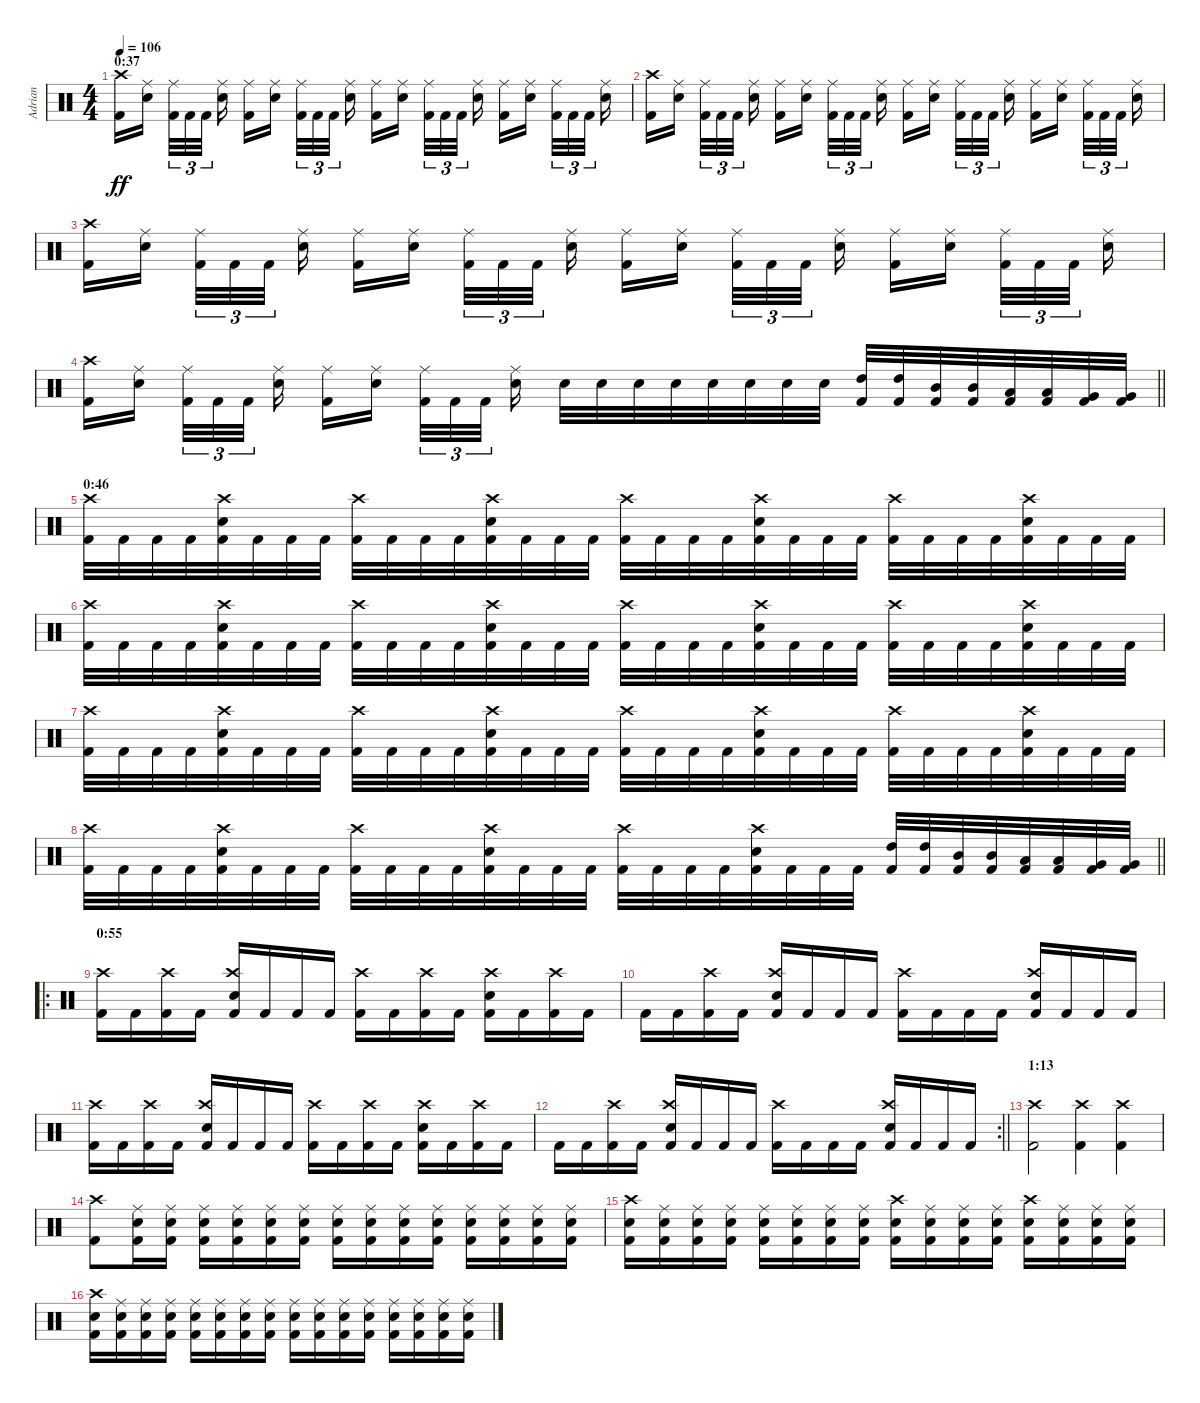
\track ("Adrian" "Adrian") {instrument percussion}
\staff {score}
\articulation defaults
\ts (4 4)
\section ("" "0:37")
\tempo 106
\clef neutral
\ks c
("Kick (hit) 2" "Crash high (hit)").16{dy ff} ("Snare (hit) 2" "Ride (middle)").16{beam splitsecondary} ("Kick (hit) 2" "Ride (middle)").32{tu (3 2)} "Kick (hit) 2".32{tu (3 2)} "Kick (hit) 2".32{tu (3 2) beam splitsecondary} ("Snare (hit) 2" "Ride (middle)").16 ("Kick (hit) 2" "Ride (middle)").16 ("Snare (hit) 2" "Ride (middle)").16{beam splitsecondary} ("Kick (hit) 2" "Ride (middle)").32{tu (3 2)} "Kick (hit) 2".32{tu (3 2)} "Kick (hit) 2".32{tu (3 2) beam splitsecondary} ("Snare (hit) 2" "Ride (middle)").16 ("Kick (hit) 2" "Ride (middle)").16 ("Snare (hit) 2" "Ride (middle)").16{beam splitsecondary} ("Kick (hit) 2" "Ride (middle)").32{tu (3 2)} "Kick (hit) 2".32{tu (3 2)} "Kick (hit) 2".32{tu (3 2) beam splitsecondary} ("Snare (hit) 2" "Ride (middle)").16 ("Kick (hit) 2" "Ride (middle)").16 ("Snare (hit) 2" "Ride (middle)").16{beam splitsecondary} ("Kick (hit) 2" "Ride (middle)").32{tu (3 2)} "Kick (hit) 2".32{tu (3 2)} "Kick (hit) 2".32{tu (3 2) beam splitsecondary} ("Snare (hit) 2" "Ride (middle)").16 |
("Kick (hit) 2" "Crash high (hit)").16 ("Snare (hit) 2" "Ride (middle)").16{beam splitsecondary} ("Kick (hit) 2" "Ride (middle)").32{tu (3 2)} "Kick (hit) 2".32{tu (3 2)} "Kick (hit) 2".32{tu (3 2) beam splitsecondary} ("Snare (hit) 2" "Ride (middle)").16 ("Kick (hit) 2" "Ride (middle)").16 ("Snare (hit) 2" "Ride (middle)").16{beam splitsecondary} ("Kick (hit) 2" "Ride (middle)").32{tu (3 2)} "Kick (hit) 2".32{tu (3 2)} "Kick (hit) 2".32{tu (3 2) beam splitsecondary} ("Snare (hit) 2" "Ride (middle)").16 ("Kick (hit) 2" "Ride (middle)").16 ("Snare (hit) 2" "Ride (middle)").16{beam splitsecondary} ("Kick (hit) 2" "Ride (middle)").32{tu (3 2)} "Kick (hit) 2".32{tu (3 2)} "Kick (hit) 2".32{tu (3 2) beam splitsecondary} ("Snare (hit) 2" "Ride (middle)").16 ("Kick (hit) 2" "Ride (middle)").16 ("Snare (hit) 2" "Ride (middle)").16{beam splitsecondary} ("Kick (hit) 2" "Ride (middle)").32{tu (3 2)} "Kick (hit) 2".32{tu (3 2)} "Kick (hit) 2".32{tu (3 2) beam splitsecondary} ("Snare (hit) 2" "Ride (middle)").16 |
("Kick (hit) 2" "Crash high (hit)").16 ("Snare (hit) 2" "Ride (middle)").16{beam splitsecondary} ("Kick (hit) 2" "Ride (middle)").32{tu (3 2)} "Kick (hit) 2".32{tu (3 2)} "Kick (hit) 2".32{tu (3 2) beam splitsecondary} ("Snare (hit) 2" "Ride (middle)").16 ("Kick (hit) 2" "Ride (middle)").16 ("Snare (hit) 2" "Ride (middle)").16{beam splitsecondary} ("Kick (hit) 2" "Ride (middle)").32{tu (3 2)} "Kick (hit) 2".32{tu (3 2)} "Kick (hit) 2".32{tu (3 2) beam splitsecondary} ("Snare (hit) 2" "Ride (middle)").16 ("Kick (hit) 2" "Ride (middle)").16 ("Snare (hit) 2" "Ride (middle)").16{beam splitsecondary} ("Kick (hit) 2" "Ride (middle)").32{tu (3 2)} "Kick (hit) 2".32{tu (3 2)} "Kick (hit) 2".32{tu (3 2) beam splitsecondary} ("Snare (hit) 2" "Ride (middle)").16 ("Kick (hit) 2" "Ride (middle)").16 ("Snare (hit) 2" "Ride (middle)").16{beam splitsecondary} ("Kick (hit) 2" "Ride (middle)").32{tu (3 2)} "Kick (hit) 2".32{tu (3 2)} "Kick (hit) 2".32{tu (3 2) beam splitsecondary} ("Snare (hit) 2" "Ride (middle)").16 |
\barLineRight lightlight
("Kick (hit) 2" "Crash high (hit)").16 ("Snare (hit) 2" "Ride (middle)").16{beam splitsecondary} ("Kick (hit) 2" "Ride (middle)").32{tu (3 2)} "Kick (hit) 2".32{tu (3 2)} "Kick (hit) 2".32{tu (3 2) beam splitsecondary} ("Snare (hit) 2" "Ride (middle)").16 ("Kick (hit) 2" "Ride (middle)").16 ("Snare (hit) 2" "Ride (middle)").16{beam splitsecondary} ("Kick (hit) 2" "Ride (middle)").32{tu (3 2)} "Kick (hit) 2".32{tu (3 2)} "Kick (hit) 2".32{tu (3 2) beam splitsecondary} ("Snare (hit) 2" "Ride (middle)").16 "Snare (hit) 2".32 "Snare (hit) 2".32 "Snare (hit) 2".32 "Snare (hit) 2".32 "Snare (hit) 2".32 "Snare (hit) 2".32 "Snare (hit) 2".32 "Snare (hit) 2".32 ("Kick (hit) 2" "High Tom (hit)").32 ("Kick (hit) 2" "High Tom (hit)").32 ("Kick (hit) 2" "Mid Tom (hit)").32 ("Kick (hit) 2" "Mid Tom (hit)").32 ("Kick (hit) 2" "Low Tom (hit)").32 ("Kick (hit) 2" "Low Tom (hit)").32 ("Kick (hit) 2" "Very Low Tom (hit)").32 ("Kick (hit) 2" "Very Low Tom (hit)").32 |
\section ("" "0:46")
("Kick (hit) 2" "Crash high (hit)").32 "Kick (hit) 2".32 "Kick (hit) 2".32 "Kick (hit) 2".32 ("Kick (hit) 2" "Snare (hit) 2" "Crash high (hit)").32 "Kick (hit) 2".32 "Kick (hit) 2".32 "Kick (hit) 2".32 ("Kick (hit) 2" "Crash high (hit)").32 "Kick (hit) 2".32 "Kick (hit) 2".32 "Kick (hit) 2".32 ("Kick (hit) 2" "Snare (hit) 2" "Crash high (hit)").32 "Kick (hit) 2".32 "Kick (hit) 2".32 "Kick (hit) 2".32 ("Kick (hit) 2" "Crash high (hit)").32 "Kick (hit) 2".32 "Kick (hit) 2".32 "Kick (hit) 2".32 ("Kick (hit) 2" "Snare (hit) 2" "Crash high (hit)").32 "Kick (hit) 2".32 "Kick (hit) 2".32 "Kick (hit) 2".32 ("Kick (hit) 2" "Crash high (hit)").32 "Kick (hit) 2".32 "Kick (hit) 2".32 "Kick (hit) 2".32 ("Kick (hit) 2" "Snare (hit) 2" "Crash high (hit)").32 "Kick (hit) 2".32 "Kick (hit) 2".32 "Kick (hit) 2".32 |
("Kick (hit) 2" "Crash high (hit)").32 "Kick (hit) 2".32 "Kick (hit) 2".32 "Kick (hit) 2".32 ("Kick (hit) 2" "Snare (hit) 2" "Crash high (hit)").32 "Kick (hit) 2".32 "Kick (hit) 2".32 "Kick (hit) 2".32 ("Kick (hit) 2" "Crash high (hit)").32 "Kick (hit) 2".32 "Kick (hit) 2".32 "Kick (hit) 2".32 ("Kick (hit) 2" "Snare (hit) 2" "Crash high (hit)").32 "Kick (hit) 2".32 "Kick (hit) 2".32 "Kick (hit) 2".32 ("Kick (hit) 2" "Crash high (hit)").32 "Kick (hit) 2".32 "Kick (hit) 2".32 "Kick (hit) 2".32 ("Kick (hit) 2" "Snare (hit) 2" "Crash high (hit)").32 "Kick (hit) 2".32 "Kick (hit) 2".32 "Kick (hit) 2".32 ("Kick (hit) 2" "Crash high (hit)").32 "Kick (hit) 2".32 "Kick (hit) 2".32 "Kick (hit) 2".32 ("Kick (hit) 2" "Snare (hit) 2" "Crash high (hit)").32 "Kick (hit) 2".32 "Kick (hit) 2".32 "Kick (hit) 2".32 |
("Kick (hit) 2" "Crash high (hit)").32 "Kick (hit) 2".32 "Kick (hit) 2".32 "Kick (hit) 2".32 ("Kick (hit) 2" "Snare (hit) 2" "Crash high (hit)").32 "Kick (hit) 2".32 "Kick (hit) 2".32 "Kick (hit) 2".32 ("Kick (hit) 2" "Crash high (hit)").32 "Kick (hit) 2".32 "Kick (hit) 2".32 "Kick (hit) 2".32 ("Kick (hit) 2" "Snare (hit) 2" "Crash high (hit)").32 "Kick (hit) 2".32 "Kick (hit) 2".32 "Kick (hit) 2".32 ("Kick (hit) 2" "Crash high (hit)").32 "Kick (hit) 2".32 "Kick (hit) 2".32 "Kick (hit) 2".32 ("Kick (hit) 2" "Snare (hit) 2" "Crash high (hit)").32 "Kick (hit) 2".32 "Kick (hit) 2".32 "Kick (hit) 2".32 ("Kick (hit) 2" "Crash high (hit)").32 "Kick (hit) 2".32 "Kick (hit) 2".32 "Kick (hit) 2".32 ("Kick (hit) 2" "Snare (hit) 2" "Crash high (hit)").32 "Kick (hit) 2".32 "Kick (hit) 2".32 "Kick (hit) 2".32 |
\barLineRight lightlight
("Kick (hit) 2" "Crash high (hit)").32 "Kick (hit) 2".32 "Kick (hit) 2".32 "Kick (hit) 2".32 ("Kick (hit) 2" "Snare (hit) 2" "Crash high (hit)").32 "Kick (hit) 2".32 "Kick (hit) 2".32 "Kick (hit) 2".32 ("Kick (hit) 2" "Crash high (hit)").32 "Kick (hit) 2".32 "Kick (hit) 2".32 "Kick (hit) 2".32 ("Kick (hit) 2" "Snare (hit) 2" "Crash high (hit)").32 "Kick (hit) 2".32 "Kick (hit) 2".32 "Kick (hit) 2".32 ("Kick (hit) 2" "Crash high (hit)").32 "Kick (hit) 2".32 "Kick (hit) 2".32 "Kick (hit) 2".32 ("Kick (hit) 2" "Snare (hit) 2" "Crash high (hit)").32 "Kick (hit) 2".32 "Kick (hit) 2".32 "Kick (hit) 2".32 ("Kick (hit) 2" "High Tom (hit)").32 ("Kick (hit) 2" "High Tom (hit)").32 ("Kick (hit) 2" "Mid Tom (hit)").32 ("Kick (hit) 2" "Mid Tom (hit)").32 ("Kick (hit) 2" "Low Tom (hit)").32 ("Kick (hit) 2" "Low Tom (hit)").32 ("Kick (hit) 2" "Very Low Tom (hit)").32 ("Kick (hit) 2" "Very Low Tom (hit)").32 |
\ro
\section ("" "0:55")
("Kick (hit) 2" "Crash high (hit)").16 "Kick (hit) 2".16 ("Kick (hit) 2" "Crash high (hit)").16 "Kick (hit) 2".16 ("Kick (hit) 2" "Snare (hit) 2" "Crash high (hit)").16 "Kick (hit) 2".16 "Kick (hit) 2".16 "Kick (hit) 2".16 ("Kick (hit) 2" "Crash high (hit)").16 "Kick (hit) 2".16 ("Kick (hit) 2" "Crash high (hit)").16 "Kick (hit) 2".16 ("Kick (hit) 2" "Snare (hit) 2" "Crash high (hit)").16 "Kick (hit) 2".16 ("Kick (hit) 2" "Crash high (hit)").16 "Kick (hit) 2".16 |
"Kick (hit) 2".16 "Kick (hit) 2".16 ("Kick (hit) 2" "Crash high (hit)").16 "Kick (hit) 2".16 ("Kick (hit) 2" "Snare (hit) 2" "Crash high (hit)").16 "Kick (hit) 2".16 "Kick (hit) 2".16 "Kick (hit) 2".16 ("Kick (hit) 2" "Crash high (hit)").16 "Kick (hit) 2".16 "Kick (hit) 2".16 "Kick (hit) 2".16 ("Kick (hit) 2" "Snare (hit) 2" "Crash high (hit)").16 "Kick (hit) 2".16 "Kick (hit) 2".16 "Kick (hit) 2".16 |
("Kick (hit) 2" "Crash high (hit)").16 "Kick (hit) 2".16 ("Kick (hit) 2" "Crash high (hit)").16 "Kick (hit) 2".16 ("Kick (hit) 2" "Snare (hit) 2" "Crash high (hit)").16 "Kick (hit) 2".16 "Kick (hit) 2".16 "Kick (hit) 2".16 ("Kick (hit) 2" "Crash high (hit)").16 "Kick (hit) 2".16 ("Kick (hit) 2" "Crash high (hit)").16 "Kick (hit) 2".16 ("Kick (hit) 2" "Snare (hit) 2" "Crash high (hit)").16 "Kick (hit) 2".16 ("Kick (hit) 2" "Crash high (hit)").16 "Kick (hit) 2".16 |
\rc 2
\barLineRight lightlight "Kick (hit) 2".16 "Kick (hit) 2".16
("Kick (hit) 2" "Crash high (hit)").16 "Kick (hit) 2".16 ("Kick (hit) 2" "Snare (hit) 2" "Crash high (hit)").16 "Kick (hit) 2".16 "Kick (hit) 2".16 "Kick (hit) 2".16 ("Kick (hit) 2" "Crash high (hit)").16 "Kick (hit) 2".16 "Kick (hit) 2".16 "Kick (hit) 2".16 ("Kick (hit) 2" "Snare (hit) 2" "Crash high (hit)").16 "Kick (hit) 2".16 "Kick (hit) 2".16 "Kick (hit) 2".16 |
\section ("" "1:13")
("Kick (hit) 2" "Crash high (hit)").2 ("Kick (hit) 2" "Crash high (hit)").4 ("Kick (hit) 2" "Crash high (hit)").4 |
("Kick (hit) 2" "Crash high (hit)").8 ("Kick (hit) 2" "Snare (hit) 2" "Ride (middle)").16 ("Kick (hit) 2" "Snare (hit) 2" "Ride (middle)").16 ("Kick (hit) 2" "Snare (hit) 2" "Ride (middle)").16 ("Kick (hit) 2" "Snare (hit) 2" "Ride (middle)").16 ("Kick (hit) 2" "Snare (hit) 2" "Ride (middle)").16 ("Kick (hit) 2" "Snare (hit) 2" "Ride (middle)").16 ("Kick (hit) 2" "Snare (hit) 2" "Ride (middle)").16 ("Kick (hit) 2" "Snare (hit) 2" "Ride (middle)").16 ("Kick (hit) 2" "Snare (hit) 2" "Ride (middle)").16 ("Kick (hit) 2" "Snare (hit) 2" "Ride (middle)").16 ("Kick (hit) 2" "Snare (hit) 2" "Ride (middle)").16 ("Kick (hit) 2" "Snare (hit) 2" "Ride (middle)").16 ("Kick (hit) 2" "Snare (hit) 2" "Ride (middle)").16 ("Kick (hit) 2" "Snare (hit) 2" "Ride (middle)").16 |
("Kick (hit) 2" "Snare (hit) 2" "Crash high (hit)").16 ("Kick (hit) 2" "Snare (hit) 2" "Ride (middle)").16 ("Kick (hit) 2" "Snare (hit) 2" "Ride (middle)").16 ("Kick (hit) 2" "Snare (hit) 2" "Ride (middle)").16 ("Kick (hit) 2" "Snare (hit) 2" "Ride (middle)").16 ("Kick (hit) 2" "Snare (hit) 2" "Ride (middle)").16 ("Kick (hit) 2" "Snare (hit) 2" "Ride (middle)").16 ("Kick (hit) 2" "Snare (hit) 2" "Ride (middle)").16 ("Kick (hit) 2" "Snare (hit) 2" "Crash high (hit)").16 ("Kick (hit) 2" "Snare (hit) 2" "Ride (middle)").16 ("Kick (hit) 2" "Snare (hit) 2" "Ride (middle)").16 ("Kick (hit) 2" "Snare (hit) 2" "Ride (middle)").16 ("Kick (hit) 2" "Snare (hit) 2" "Crash high (hit)").16 ("Kick (hit) 2" "Snare (hit) 2" "Ride (middle)").16 ("Kick (hit) 2" "Snare (hit) 2" "Ride (middle)").16 ("Kick (hit) 2" "Snare (hit) 2" "Ride (middle)").16 |
("Kick (hit) 2" "Snare (hit) 2" "Crash high (hit)").16 ("Kick (hit) 2" "Snare (hit) 2" "Ride (middle)").16 ("Kick (hit) 2" "Snare (hit) 2" "Ride (middle)").16 ("Kick (hit) 2" "Snare (hit) 2" "Ride (middle)").16 ("Kick (hit) 2" "Snare (hit) 2" "Ride (middle)").16 ("Kick (hit) 2" "Snare (hit) 2" "Ride (middle)").16 ("Kick (hit) 2" "Snare (hit) 2" "Ride (middle)").16 ("Kick (hit) 2" "Snare (hit) 2" "Ride (middle)").16 ("Kick (hit) 2" "Snare (hit) 2" "Ride (middle)").16 ("Kick (hit) 2" "Snare (hit) 2" "Ride (middle)").16 ("Kick (hit) 2" "Snare (hit) 2" "Ride (middle)").16 ("Kick (hit) 2" "Snare (hit) 2" "Ride (middle)").16 ("Kick (hit) 2" "Snare (hit) 2" "Ride (middle)").16 ("Kick (hit) 2" "Snare (hit) 2" "Ride (middle)").16 ("Kick (hit) 2" "Snare (hit) 2" "Ride (middle)").16 ("Kick (hit) 2" "Snare (hit) 2" "Ride (middle)").16
